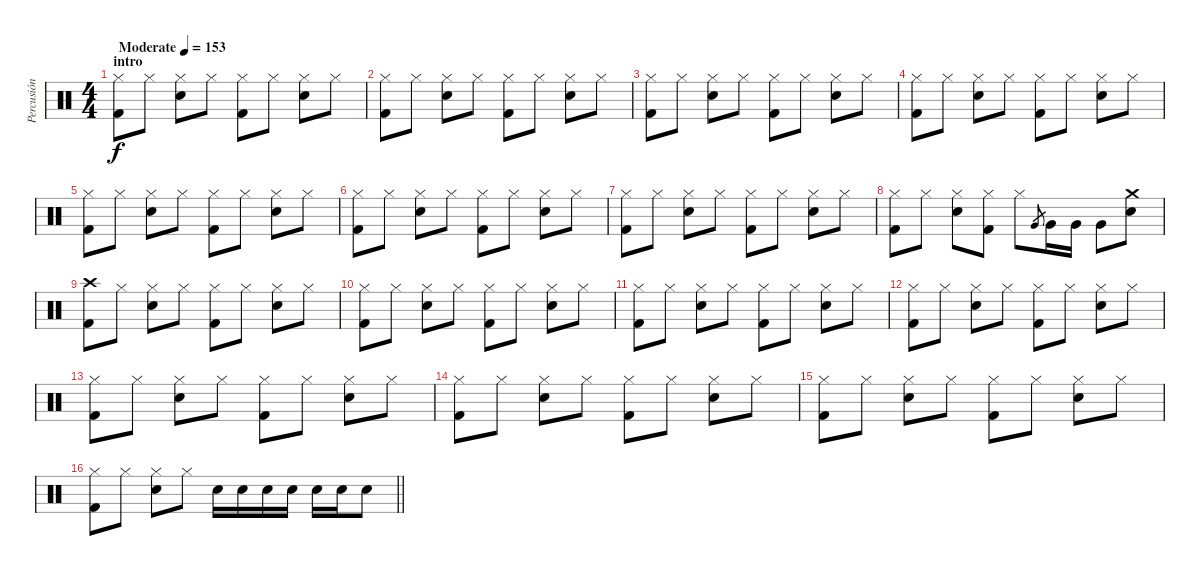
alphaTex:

\track ("Percusión" "Percusión") {instrument percussion}
\staff {score}
\articulation defaults
\ts (4 4)
\section ("" "intro")
\tempo (153 "Moderate")
\clef neutral
\ks c
("Hi-Hat (closed)" "Kick (hit) 2").8{dy f} "Hi-Hat (closed)".8 ("Hi-Hat (closed)" "Snare (hit) 2").8 "Hi-Hat (closed)".8 ("Hi-Hat (closed)" "Kick (hit) 2").8 "Hi-Hat (closed)".8 ("Hi-Hat (closed)" "Snare (hit) 2").8 "Hi-Hat (closed)".8 |
("Hi-Hat (closed)" "Kick (hit) 2").8 "Hi-Hat (closed)".8 ("Hi-Hat (closed)" "Snare (hit) 2").8 "Hi-Hat (closed)".8 ("Hi-Hat (closed)" "Kick (hit) 2").8 "Hi-Hat (closed)".8 ("Hi-Hat (closed)" "Snare (hit) 2").8 "Hi-Hat (closed)".8 |
("Hi-Hat (closed)" "Kick (hit) 2").8 "Hi-Hat (closed)".8 ("Hi-Hat (closed)" "Snare (hit) 2").8 "Hi-Hat (closed)".8 ("Hi-Hat (closed)" "Kick (hit) 2").8 "Hi-Hat (closed)".8 ("Hi-Hat (closed)" "Snare (hit) 2").8 "Hi-Hat (closed)".8 |
("Hi-Hat (closed)" "Kick (hit) 2").8 "Hi-Hat (closed)".8 ("Hi-Hat (closed)" "Snare (hit) 2").8 "Hi-Hat (closed)".8 ("Hi-Hat (closed)" "Kick (hit) 2").8 "Hi-Hat (closed)".8 ("Hi-Hat (closed)" "Snare (hit) 2").8 "Hi-Hat (closed)".8 |
("Hi-Hat (closed)" "Kick (hit) 2").8 "Hi-Hat (closed)".8 ("Hi-Hat (closed)" "Snare (hit) 2").8 "Hi-Hat (closed)".8 ("Hi-Hat (closed)" "Kick (hit) 2").8 "Hi-Hat (closed)".8 ("Hi-Hat (closed)" "Snare (hit) 2").8 "Hi-Hat (closed)".8 |
("Hi-Hat (closed)" "Kick (hit) 2").8 "Hi-Hat (closed)".8 ("Hi-Hat (closed)" "Snare (hit) 2").8 "Hi-Hat (closed)".8 ("Hi-Hat (closed)" "Kick (hit) 2").8 "Hi-Hat (closed)".8 ("Hi-Hat (closed)" "Snare (hit) 2").8 "Hi-Hat (closed)".8 |
("Hi-Hat (closed)" "Kick (hit) 2").8 "Hi-Hat (closed)".8 ("Hi-Hat (closed)" "Snare (hit) 2").8 "Hi-Hat (closed)".8 ("Hi-Hat (closed)" "Kick (hit) 2").8 "Hi-Hat (closed)".8 ("Hi-Hat (closed)" "Snare (hit) 2").8 "Hi-Hat (closed)".8 |
("Hi-Hat (closed)" "Kick (hit) 2").8 "Hi-Hat (closed)".8 ("Hi-Hat (closed)" "Snare (hit) 2").8 ("Hi-Hat (closed)" "Kick (hit) 2").8 "Hi-Hat (closed)".8 "Very Low Tom (hit)".8{gr} "Very Low Tom (hit)".16 "Very Low Tom (hit)".16 "Very Low Tom (hit)".8 ("Crash medium (hit)" "Snare (hit) 2").8 |
("Crash high (hit)" "Kick (hit) 2").8 "Hi-Hat (closed)".8 ("Hi-Hat (closed)" "Snare (hit) 2").8 "Hi-Hat (closed)".8 ("Hi-Hat (closed)" "Kick (hit) 2").8 "Hi-Hat (closed)".8 ("Hi-Hat (closed)" "Snare (hit) 2").8 "Hi-Hat (closed)".8 |
("Hi-Hat (closed)" "Kick (hit) 2").8 "Hi-Hat (closed)".8 ("Hi-Hat (closed)" "Snare (hit) 2").8 "Hi-Hat (closed)".8 ("Hi-Hat (closed)" "Kick (hit) 2").8 "Hi-Hat (closed)".8 ("Hi-Hat (closed)" "Snare (hit) 2").8 "Hi-Hat (closed)".8 |
("Hi-Hat (closed)" "Kick (hit) 2").8 "Hi-Hat (closed)".8 ("Hi-Hat (closed)" "Snare (hit) 2").8 "Hi-Hat (closed)".8 ("Hi-Hat (closed)" "Kick (hit) 2").8 "Hi-Hat (closed)".8 ("Hi-Hat (closed)" "Snare (hit) 2").8 "Hi-Hat (closed)".8 |
("Hi-Hat (closed)" "Kick (hit) 2").8 "Hi-Hat (closed)".8 ("Hi-Hat (closed)" "Snare (hit) 2").8 "Hi-Hat (closed)".8 ("Hi-Hat (closed)" "Kick (hit) 2").8 "Hi-Hat (closed)".8 ("Hi-Hat (closed)" "Snare (hit) 2").8 "Hi-Hat (closed)".8 |
("Hi-Hat (closed)" "Kick (hit) 2").8 "Hi-Hat (closed)".8 ("Hi-Hat (closed)" "Snare (hit) 2").8 "Hi-Hat (closed)".8 ("Hi-Hat (closed)" "Kick (hit) 2").8 "Hi-Hat (closed)".8 ("Hi-Hat (closed)" "Snare (hit) 2").8 "Hi-Hat (closed)".8 |
("Hi-Hat (closed)" "Kick (hit) 2").8 "Hi-Hat (closed)".8 ("Hi-Hat (closed)" "Snare (hit) 2").8 "Hi-Hat (closed)".8 ("Hi-Hat (closed)" "Kick (hit) 2").8 "Hi-Hat (closed)".8 ("Hi-Hat (closed)" "Snare (hit) 2").8 "Hi-Hat (closed)".8 |
("Hi-Hat (closed)" "Kick (hit) 2").8 "Hi-Hat (closed)".8 ("Hi-Hat (closed)" "Snare (hit) 2").8 "Hi-Hat (closed)".8 ("Hi-Hat (closed)" "Kick (hit) 2").8 "Hi-Hat (closed)".8 ("Hi-Hat (closed)" "Snare (hit) 2").8 "Hi-Hat (closed)".8 |
\barLineRight lightlight
("Hi-Hat (closed)" "Kick (hit) 2").8 "Hi-Hat (closed)".8 ("Hi-Hat (closed)" "Snare (hit) 2").8 "Hi-Hat (closed)".8 "Snare (hit) 2".16 "Snare (hit) 2".16 "Snare (hit) 2".16 "Snare (hit) 2".16 "Snare (hit) 2".16 "Snare (hit) 2".16 "Snare (hit) 2".8
